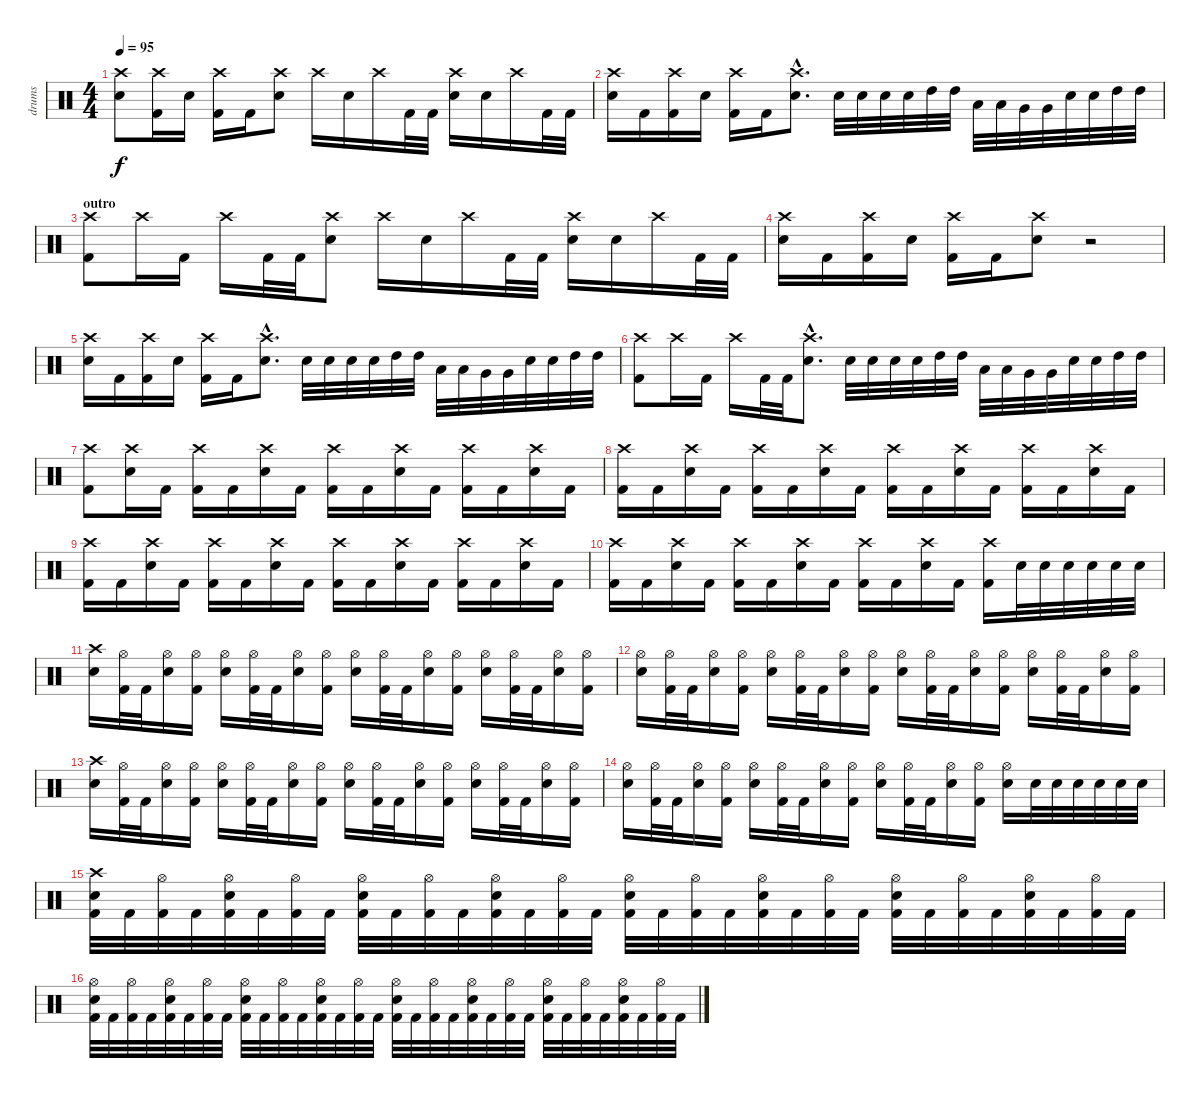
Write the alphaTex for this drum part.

\track ("drums" "drums") {instrument percussion}
\staff {score}
\articulation defaults
\ts (4 4)
\tempo 95
\clef neutral
\ks c
("Crash high (hit)" "Electric Snare (hit)").8{dy f} ("Crash high (hit)" "Kick (hit) 2").16 "Electric Snare (hit)".16 ("Crash high (hit)" "Kick (hit) 2").16 "Kick (hit) 2".16 ("Crash high (hit)" "Electric Snare (hit)").8 "Crash high (hit)".16 "Electric Snare (hit)".16 "Crash high (hit)".16 "Kick (hit) 2".32 "Kick (hit) 2".32 ("Crash high (hit)" "Electric Snare (hit)").16 "Electric Snare (hit)".16 "Crash high (hit)".16 "Kick (hit) 2".32 "Kick (hit) 2".32 |
("Crash high (hit)" "Electric Snare (hit)").16 "Kick (hit) 2".16 ("Crash high (hit)" "Kick (hit) 2").16 "Electric Snare (hit)".16 ("Crash high (hit)" "Kick (hit) 2").16 "Kick (hit) 2".16 ("Crash high (hit)"{hac} "Electric Snare (hit)"{hac}).8{d} "Electric Snare (hit)".32 "Electric Snare (hit)".32 "Electric Snare (hit)".32 "Electric Snare (hit)".32 "High Tom (hit)".32 "High Tom (hit)".32 "Low Tom (hit)".32 "Low Tom (hit)".32 "Very Low Tom (hit)".32 "Very Low Tom (hit)".32 "Electric Snare (hit)".32 "Electric Snare (hit)".32 "High Tom (hit)".32 "High Tom (hit)".32 |
\section ("" "outro")
("Crash high (hit)" "Kick (hit) 2").8 "Crash high (hit)".16 "Kick (hit) 2".16 "Crash high (hit)".16 "Kick (hit) 2".32 "Kick (hit) 2".32 ("Crash high (hit)" "Electric Snare (hit)").8 "Crash high (hit)".16 "Electric Snare (hit)".16 "Crash high (hit)".16 "Kick (hit) 2".32 "Kick (hit) 2".32 ("Crash high (hit)" "Electric Snare (hit)").16 "Electric Snare (hit)".16 "Crash high (hit)".16 "Kick (hit) 2".32 "Kick (hit) 2".32 |
("Crash high (hit)" "Electric Snare (hit)").16 "Kick (hit) 2".16 ("Crash high (hit)" "Kick (hit) 2").16 "Electric Snare (hit)".16 ("Crash high (hit)" "Kick (hit) 2").16 "Kick (hit) 2".16 ("Crash high (hit)" "Electric Snare (hit)").8 r.2 |
("Crash high (hit)" "Electric Snare (hit)").16 "Kick (hit) 2".16 ("Crash high (hit)" "Kick (hit) 2").16 "Electric Snare (hit)".16 ("Crash high (hit)" "Kick (hit) 2").16 "Kick (hit) 2".16 ("Crash high (hit)"{hac} "Electric Snare (hit)"{hac}).8{d} "Electric Snare (hit)".32 "Electric Snare (hit)".32 "Electric Snare (hit)".32 "Electric Snare (hit)".32 "High Tom (hit)".32 "High Tom (hit)".32 "Low Tom (hit)".32 "Low Tom (hit)".32 "Very Low Tom (hit)".32 "Very Low Tom (hit)".32 "Electric Snare (hit)".32 "Electric Snare (hit)".32 "High Tom (hit)".32 "High Tom (hit)".32 |
("Crash high (hit)" "Kick (hit) 2").8 "Crash high (hit)".16 "Kick (hit) 2".16 "Crash high (hit)".16 "Kick (hit) 2".32 "Kick (hit) 2".32 ("Crash high (hit)"{hac} "Electric Snare (hit)"{hac}).8{d} "Electric Snare (hit)".32 "Electric Snare (hit)".32 "Electric Snare (hit)".32 "Electric Snare (hit)".32 "High Tom (hit)".32 "High Tom (hit)".32 "Low Tom (hit)".32 "Low Tom (hit)".32 "Very Low Tom (hit)".32 "Very Low Tom (hit)".32 "Electric Snare (hit)".32 "Electric Snare (hit)".32 "High Tom (hit)".32 "High Tom (hit)".32 |
("Crash high (hit)" "Kick (hit) 2").8 ("Crash high (hit)" "Electric Snare (hit)").16 "Kick (hit) 2".16 ("Crash high (hit)" "Kick (hit) 2").16 "Kick (hit) 2".16 ("Crash high (hit)" "Electric Snare (hit)").16 "Kick (hit) 2".16 ("Crash high (hit)" "Kick (hit) 2").16 "Kick (hit) 2".16 ("Crash high (hit)" "Electric Snare (hit)").16 "Kick (hit) 2".16 ("Crash high (hit)" "Kick (hit) 2").16 "Kick (hit) 2".16 ("Crash high (hit)" "Electric Snare (hit)").16 "Kick (hit) 2".16 |
("Crash high (hit)" "Kick (hit) 2").16 "Kick (hit) 2".16 ("Crash high (hit)" "Electric Snare (hit)").16 "Kick (hit) 2".16 ("Crash high (hit)" "Kick (hit) 2").16 "Kick (hit) 2".16 ("Crash high (hit)" "Electric Snare (hit)").16 "Kick (hit) 2".16 ("Crash high (hit)" "Kick (hit) 2").16 "Kick (hit) 2".16 ("Crash high (hit)" "Electric Snare (hit)").16 "Kick (hit) 2".16 ("Crash high (hit)" "Kick (hit) 2").16 "Kick (hit) 2".16 ("Crash high (hit)" "Electric Snare (hit)").16 "Kick (hit) 2".16 |
("Crash high (hit)" "Kick (hit) 2").16 "Kick (hit) 2".16 ("Crash high (hit)" "Electric Snare (hit)").16 "Kick (hit) 2".16 ("Crash high (hit)" "Kick (hit) 2").16 "Kick (hit) 2".16 ("Crash high (hit)" "Electric Snare (hit)").16 "Kick (hit) 2".16 ("Crash high (hit)" "Kick (hit) 2").16 "Kick (hit) 2".16 ("Crash high (hit)" "Electric Snare (hit)").16 "Kick (hit) 2".16 ("Crash high (hit)" "Kick (hit) 2").16 "Kick (hit) 2".16 ("Crash high (hit)" "Electric Snare (hit)").16 "Kick (hit) 2".16 |
("Crash high (hit)" "Kick (hit) 2").16 "Kick (hit) 2".16 ("Crash high (hit)" "Electric Snare (hit)").16 "Kick (hit) 2".16 ("Crash high (hit)" "Kick (hit) 2").16 "Kick (hit) 2".16 ("Crash high (hit)" "Electric Snare (hit)").16 "Kick (hit) 2".16 ("Crash high (hit)" "Kick (hit) 2").16 "Kick (hit) 2".16 ("Crash high (hit)" "Electric Snare (hit)").16 "Kick (hit) 2".16 ("Crash high (hit)" "Kick (hit) 2").16 "Electric Snare (hit)".32 "Electric Snare (hit)".32 "Electric Snare (hit)".32 "Electric Snare (hit)".32 "Electric Snare (hit)".32 "Electric Snare (hit)".32 |
("Crash high (hit)" "Electric Snare (hit)").16 ("Hi-Hat (open)" "Kick (hit) 2").32 "Kick (hit) 2".32 ("Hi-Hat (open)" "Electric Snare (hit)").16 ("Hi-Hat (open)" "Kick (hit) 2").16 ("Hi-Hat (open)" "Electric Snare (hit)").16 ("Hi-Hat (open)" "Kick (hit) 2").32 "Kick (hit) 2".32 ("Hi-Hat (open)" "Electric Snare (hit)").16 ("Hi-Hat (open)" "Kick (hit) 2").16 ("Hi-Hat (open)" "Electric Snare (hit)").16 ("Hi-Hat (open)" "Kick (hit) 2").32 "Kick (hit) 2".32 ("Hi-Hat (open)" "Electric Snare (hit)").16 ("Hi-Hat (open)" "Kick (hit) 2").16 ("Hi-Hat (open)" "Electric Snare (hit)").16 ("Hi-Hat (open)" "Kick (hit) 2").32 "Kick (hit) 2".32 ("Hi-Hat (open)" "Electric Snare (hit)").16 ("Hi-Hat (open)" "Kick (hit) 2").16 |
("Hi-Hat (open)" "Electric Snare (hit)").16 ("Hi-Hat (open)" "Kick (hit) 2").32 "Kick (hit) 2".32 ("Hi-Hat (open)" "Electric Snare (hit)").16 ("Hi-Hat (open)" "Kick (hit) 2").16 ("Hi-Hat (open)" "Electric Snare (hit)").16 ("Hi-Hat (open)" "Kick (hit) 2").32 "Kick (hit) 2".32 ("Hi-Hat (open)" "Electric Snare (hit)").16 ("Hi-Hat (open)" "Kick (hit) 2").16 ("Hi-Hat (open)" "Electric Snare (hit)").16 ("Hi-Hat (open)" "Kick (hit) 2").32 "Kick (hit) 2".32 ("Hi-Hat (open)" "Electric Snare (hit)").16 ("Hi-Hat (open)" "Kick (hit) 2").16 ("Hi-Hat (open)" "Electric Snare (hit)").16 ("Hi-Hat (open)" "Kick (hit) 2").32 "Kick (hit) 2".32 ("Hi-Hat (open)" "Electric Snare (hit)").16 ("Hi-Hat (open)" "Kick (hit) 2").16 |
("Crash high (hit)" "Electric Snare (hit)").16 ("Hi-Hat (open)" "Kick (hit) 2").32 "Kick (hit) 2".32 ("Hi-Hat (open)" "Electric Snare (hit)").16 ("Hi-Hat (open)" "Kick (hit) 2").16 ("Hi-Hat (open)" "Electric Snare (hit)").16 ("Hi-Hat (open)" "Kick (hit) 2").32 "Kick (hit) 2".32 ("Hi-Hat (open)" "Electric Snare (hit)").16 ("Hi-Hat (open)" "Kick (hit) 2").16 ("Hi-Hat (open)" "Electric Snare (hit)").16 ("Hi-Hat (open)" "Kick (hit) 2").32 "Kick (hit) 2".32 ("Hi-Hat (open)" "Electric Snare (hit)").16 ("Hi-Hat (open)" "Kick (hit) 2").16 ("Hi-Hat (open)" "Electric Snare (hit)").16 ("Hi-Hat (open)" "Kick (hit) 2").32 "Kick (hit) 2".32 ("Hi-Hat (open)" "Electric Snare (hit)").16 ("Hi-Hat (open)" "Kick (hit) 2").16 |
("Hi-Hat (open)" "Electric Snare (hit)").16 ("Hi-Hat (open)" "Kick (hit) 2").32 "Kick (hit) 2".32 ("Hi-Hat (open)" "Electric Snare (hit)").16 ("Hi-Hat (open)" "Kick (hit) 2").16 ("Hi-Hat (open)" "Electric Snare (hit)").16 ("Hi-Hat (open)" "Kick (hit) 2").32 "Kick (hit) 2".32 ("Hi-Hat (open)" "Electric Snare (hit)").16 ("Hi-Hat (open)" "Kick (hit) 2").16 ("Hi-Hat (open)" "Electric Snare (hit)").16 ("Hi-Hat (open)" "Kick (hit) 2").32 "Kick (hit) 2".32 ("Hi-Hat (open)" "Electric Snare (hit)").16 ("Hi-Hat (open)" "Kick (hit) 2").16 ("Hi-Hat (open)" "Electric Snare (hit)").16 "Electric Snare (hit)".32 "Electric Snare (hit)".32 "Electric Snare (hit)".32 "Electric Snare (hit)".32 "Electric Snare (hit)".32 "Electric Snare (hit)".32 |
("Crash high (hit)" "Electric Snare (hit)" "Kick (hit) 2").32 "Kick (hit) 2".32 ("Hi-Hat (open)" "Kick (hit) 2").32 "Kick (hit) 2".32 ("Hi-Hat (open)" "Electric Snare (hit)" "Kick (hit) 2").32 "Kick (hit) 2".32 ("Hi-Hat (open)" "Kick (hit) 2").32 "Kick (hit) 2".32 ("Hi-Hat (open)" "Electric Snare (hit)" "Kick (hit) 2").32 "Kick (hit) 2".32 ("Hi-Hat (open)" "Kick (hit) 2").32 "Kick (hit) 2".32 ("Hi-Hat (open)" "Electric Snare (hit)" "Kick (hit) 2").32 "Kick (hit) 2".32 ("Hi-Hat (open)" "Kick (hit) 2").32 "Kick (hit) 2".32 ("Hi-Hat (open)" "Electric Snare (hit)" "Kick (hit) 2").32 "Kick (hit) 2".32 ("Hi-Hat (open)" "Kick (hit) 2").32 "Kick (hit) 2".32 ("Hi-Hat (open)" "Electric Snare (hit)" "Kick (hit) 2").32 "Kick (hit) 2".32 ("Hi-Hat (open)" "Kick (hit) 2").32 "Kick (hit) 2".32 ("Hi-Hat (open)" "Electric Snare (hit)" "Kick (hit) 2").32 "Kick (hit) 2".32 ("Hi-Hat (open)" "Kick (hit) 2").32 "Kick (hit) 2".32 ("Hi-Hat (open)" "Electric Snare (hit)" "Kick (hit) 2").32 "Kick (hit) 2".32 ("Hi-Hat (open)" "Kick (hit) 2").32 "Kick (hit) 2".32 |
("Hi-Hat (open)" "Electric Snare (hit)" "Kick (hit) 2").32 "Kick (hit) 2".32 ("Hi-Hat (open)" "Kick (hit) 2").32 "Kick (hit) 2".32 ("Hi-Hat (open)" "Electric Snare (hit)" "Kick (hit) 2").32 "Kick (hit) 2".32 ("Hi-Hat (open)" "Kick (hit) 2").32 "Kick (hit) 2".32 ("Hi-Hat (open)" "Electric Snare (hit)" "Kick (hit) 2").32 "Kick (hit) 2".32 ("Hi-Hat (open)" "Kick (hit) 2").32 "Kick (hit) 2".32 ("Hi-Hat (open)" "Electric Snare (hit)" "Kick (hit) 2").32 "Kick (hit) 2".32 ("Hi-Hat (open)" "Kick (hit) 2").32 "Kick (hit) 2".32 ("Hi-Hat (open)" "Electric Snare (hit)" "Kick (hit) 2").32 "Kick (hit) 2".32 ("Hi-Hat (open)" "Kick (hit) 2").32 "Kick (hit) 2".32 ("Hi-Hat (open)" "Electric Snare (hit)" "Kick (hit) 2").32 "Kick (hit) 2".32 ("Hi-Hat (open)" "Kick (hit) 2").32 "Kick (hit) 2".32 ("Hi-Hat (open)" "Electric Snare (hit)" "Kick (hit) 2").32 "Kick (hit) 2".32 ("Hi-Hat (open)" "Kick (hit) 2").32 "Kick (hit) 2".32 ("Hi-Hat (open)" "Electric Snare (hit)" "Kick (hit) 2").32 "Kick (hit) 2".32 ("Hi-Hat (open)" "Kick (hit) 2").32 "Kick (hit) 2".32
